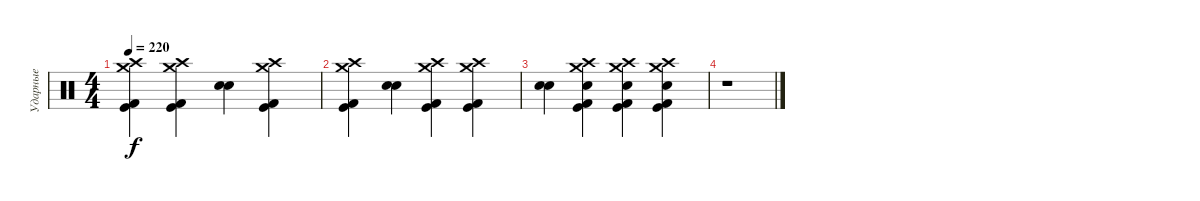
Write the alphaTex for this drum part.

\track ("Ударные" "Ударные") {instrument percussion}
\staff {score}
\articulation defaults
\ts (4 4)
\tempo 220
\clef neutral
\ks c
("Crash high (hit)" "Crash medium (hit)" "Kick (hit)" "Kick (hit) 2").4{dy f} ("Crash high (hit)" "Crash medium (hit)" "Kick (hit)" "Kick (hit) 2").4 ("Snare (hit) 2" "Snare (hit) 2").4 ("Crash high (hit)" "Crash medium (hit)" "Kick (hit)" "Kick (hit) 2").4 |
("Crash high (hit)" "Crash medium (hit)" "Kick (hit)" "Kick (hit) 2").4 ("Snare (hit) 2" "Snare (hit) 2").4 ("Crash high (hit)" "Crash medium (hit)" "Kick (hit)" "Kick (hit) 2").4 ("Crash high (hit)" "Crash medium (hit)" "Kick (hit)" "Kick (hit) 2").4 |
("Snare (hit) 2" "Snare (hit) 2").4 ("Crash high (hit)" "Crash medium (hit)" "Snare (hit) 2" "Kick (hit)" "Kick (hit) 2").4 ("Crash high (hit)" "Crash medium (hit)" "Snare (hit) 2" "Kick (hit)" "Kick (hit) 2").4 ("Crash high (hit)" "Crash medium (hit)" "Snare (hit) 2" "Kick (hit)" "Kick (hit) 2").4 |
r.1
